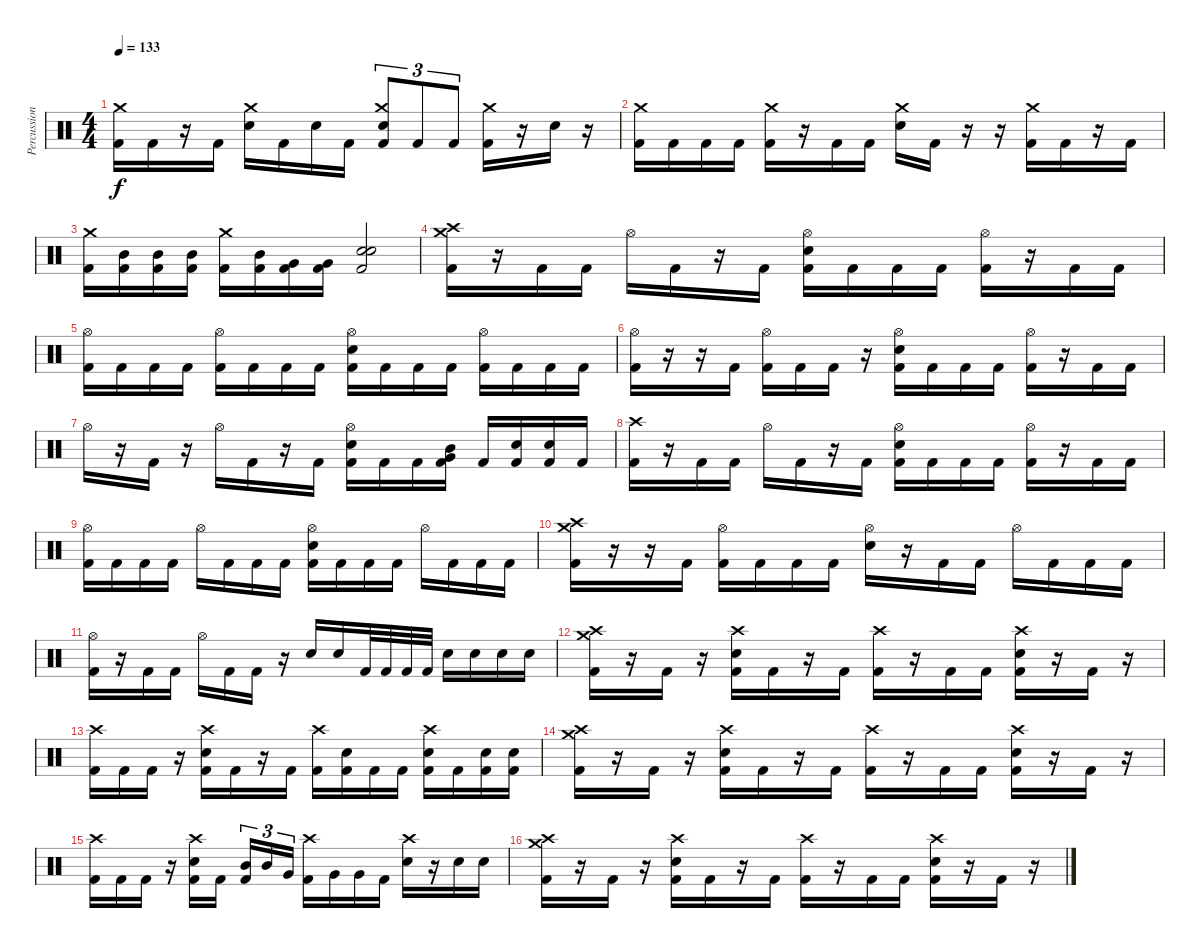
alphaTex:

\track ("Percussion" "Percussion") {instrument percussion}
\staff {score}
\articulation defaults
\ts (4 4)
\tempo 133
\clef neutral
\ks c
("Kick (hit) 2" "Crash medium (hit)").16{dy f} "Kick (hit) 2".16 r.16 "Kick (hit) 2".16 ("Electric Snare (hit)" "Crash medium (hit)").16 "Kick (hit) 2".16 "Electric Snare (hit)".16 "Kick (hit) 2".16 ("Kick (hit) 2" "Electric Snare (hit)" "Crash medium (hit)").8{tu (3 2)} "Kick (hit) 2".8{tu (3 2)} "Kick (hit) 2".8{tu (3 2)} ("Kick (hit) 2" "Crash medium (hit)").16 r.16 "Electric Snare (hit)".16 r.16 |
("Kick (hit) 2" "Crash medium (hit)").16 "Kick (hit) 2".16 "Kick (hit) 2".16 "Kick (hit) 2".16 ("Kick (hit) 2" "Crash medium (hit)").16 r.16 "Kick (hit) 2".16 "Kick (hit) 2".16 ("Electric Snare (hit)" "Crash medium (hit)").16 "Kick (hit) 2".16 r.16 r.16 ("Kick (hit) 2" "Crash medium (hit)").16 "Kick (hit) 2".16 r.16 "Kick (hit) 2".16 |
("Kick (hit) 2" "Crash medium (hit)").16 ("Kick (hit) 2" "Mid Tom (hit)").16 ("Kick (hit) 2" "Mid Tom (hit)").16 ("Kick (hit) 2" "Mid Tom (hit)").16 ("Kick (hit) 2" "Crash medium (hit)").16 ("Kick (hit) 2" "Mid Tom (hit)").16 ("Kick (hit) 2" "Very Low Tom (hit)").16 ("Kick (hit) 2" "Very Low Tom (hit)").16 ("Kick (hit) 2" "Electric Snare (hit)" "Electric Snare (hit)").2 |
("Kick (hit) 2" "Crash medium (hit)" "Crash high (hit)").16 r.16 "Kick (hit) 2".16 "Kick (hit) 2".16 "Hi-Hat (open)".16 "Kick (hit) 2".16 r.16 "Kick (hit) 2".16 ("Kick (hit) 2" "Electric Snare (hit)" "Hi-Hat (open)").16 "Kick (hit) 2".16 "Kick (hit) 2".16 "Kick (hit) 2".16 ("Kick (hit) 2" "Hi-Hat (open)").16 r.16 "Kick (hit) 2".16 "Kick (hit) 2".16 |
("Kick (hit) 2" "Hi-Hat (open)").16 "Kick (hit) 2".16 "Kick (hit) 2".16 "Kick (hit) 2".16 ("Kick (hit) 2" "Hi-Hat (open)").16 "Kick (hit) 2".16 "Kick (hit) 2".16 "Kick (hit) 2".16 ("Kick (hit) 2" "Electric Snare (hit)" "Hi-Hat (open)").16 "Kick (hit) 2".16 "Kick (hit) 2".16 "Kick (hit) 2".16 ("Kick (hit) 2" "Hi-Hat (open)").16 "Kick (hit) 2".16 "Kick (hit) 2".16 "Kick (hit) 2".16 |
("Kick (hit) 2" "Hi-Hat (open)").16 r.16 r.16 "Kick (hit) 2".16 ("Kick (hit) 2" "Hi-Hat (open)").16 "Kick (hit) 2".16 "Kick (hit) 2".16 r.16 ("Kick (hit) 2" "Electric Snare (hit)" "Hi-Hat (open)").16 "Kick (hit) 2".16 "Kick (hit) 2".16 "Kick (hit) 2".16 ("Kick (hit) 2" "Hi-Hat (open)").16 r.16 "Kick (hit) 2".16 "Kick (hit) 2".16 |
"Hi-Hat (open)".16 r.16 "Kick (hit) 2".16 r.16 "Hi-Hat (open)".16 "Kick (hit) 2".16 r.16 "Kick (hit) 2".16 ("Kick (hit) 2" "Electric Snare (hit)" "Hi-Hat (open)").16 "Kick (hit) 2".16 "Kick (hit) 2".16 ("Kick (hit) 2" "Very Low Tom (hit)" "Mid Tom (hit)").16 "Kick (hit) 2".16 ("Kick (hit) 2" "Electric Snare (hit)").16 ("Kick (hit) 2" "Electric Snare (hit)").16 "Kick (hit) 2".16 |
("Kick (hit) 2" "Crash high (hit)").16 r.16 "Kick (hit) 2".16 "Kick (hit) 2".16 "Hi-Hat (open)".16 "Kick (hit) 2".16 r.16 "Kick (hit) 2".16 ("Kick (hit) 2" "Electric Snare (hit)" "Hi-Hat (open)").16 "Kick (hit) 2".16 "Kick (hit) 2".16 "Kick (hit) 2".16 ("Kick (hit) 2" "Hi-Hat (open)").16 r.16 "Kick (hit) 2".16 "Kick (hit) 2".16 |
("Kick (hit) 2" "Hi-Hat (open)").16 "Kick (hit) 2".16 "Kick (hit) 2".16 "Kick (hit) 2".16 "Hi-Hat (open)".16 "Kick (hit) 2".16 "Kick (hit) 2".16 "Kick (hit) 2".16 ("Kick (hit) 2" "Electric Snare (hit)" "Hi-Hat (open)").16 "Kick (hit) 2".16 "Kick (hit) 2".16 "Kick (hit) 2".16 "Hi-Hat (open)".16 "Kick (hit) 2".16 "Kick (hit) 2".16 "Kick (hit) 2".16 |
("Kick (hit) 2" "Crash medium (hit)" "Crash high (hit)").16 r.16 r.16 "Kick (hit) 2".16 ("Kick (hit) 2" "Hi-Hat (open)").16 "Kick (hit) 2".16 "Kick (hit) 2".16 "Kick (hit) 2".16 ("Electric Snare (hit)" "Hi-Hat (open)").16 r.16 "Kick (hit) 2".16 "Kick (hit) 2".16 "Hi-Hat (open)".16 "Kick (hit) 2".16 "Kick (hit) 2".16 "Kick (hit) 2".16 |
("Kick (hit) 2" "Hi-Hat (open)").16 r.16 "Kick (hit) 2".16 "Kick (hit) 2".16 "Hi-Hat (open)".16 "Kick (hit) 2".16 "Kick (hit) 2".16 r.16 "Electric Snare (hit)".16 "Electric Snare (hit)".16 "Kick (hit) 2".32 "Kick (hit) 2".32 "Kick (hit) 2".32 "Kick (hit) 2".32 "Electric Snare (hit)".16 "Electric Snare (hit)".16 "Electric Snare (hit)".16 "Electric Snare (hit)".16 |
("Kick (hit) 2" "Crash medium (hit)" "Crash high (hit)").16 r.16 "Kick (hit) 2".16 r.16 ("Kick (hit) 2" "Electric Snare (hit)" "Crash high (hit)").16 "Kick (hit) 2".16 r.16 "Kick (hit) 2".16 ("Kick (hit) 2" "Crash high (hit)").16 r.16 "Kick (hit) 2".16 "Kick (hit) 2".16 ("Kick (hit) 2" "Electric Snare (hit)" "Crash high (hit)").16 r.16 "Kick (hit) 2".16 r.16 |
("Kick (hit) 2" "Crash high (hit)").16 "Kick (hit) 2".16 "Kick (hit) 2".16 r.16 ("Kick (hit) 2" "Electric Snare (hit)" "Crash high (hit)").16 "Kick (hit) 2".16 r.16 "Kick (hit) 2".16 ("Kick (hit) 2" "Crash high (hit)").16 ("Kick (hit) 2" "Electric Snare (hit)").16 "Kick (hit) 2".16 "Kick (hit) 2".16 ("Kick (hit) 2" "Electric Snare (hit)" "Crash high (hit)").16 "Kick (hit) 2".16 ("Kick (hit) 2" "Electric Snare (hit)").16 ("Kick (hit) 2" "Electric Snare (hit)").16 |
("Kick (hit) 2" "Crash medium (hit)" "Crash high (hit)").16 r.16 "Kick (hit) 2".16 r.16 ("Kick (hit) 2" "Electric Snare (hit)" "Crash high (hit)").16 "Kick (hit) 2".16 r.16 "Kick (hit) 2".16 ("Kick (hit) 2" "Crash high (hit)").16 r.16 "Kick (hit) 2".16 "Kick (hit) 2".16 ("Kick (hit) 2" "Electric Snare (hit)" "Crash high (hit)").16 r.16 "Kick (hit) 2".16 r.16 |
("Kick (hit) 2" "Crash high (hit)").16 "Kick (hit) 2".16 "Kick (hit) 2".16 r.16 ("Kick (hit) 2" "Electric Snare (hit)" "Crash high (hit)").16 "Kick (hit) 2".16{beam splitsecondary} ("Kick (hit) 2" "Mid Tom (hit)").16{tu (3 2)} "Mid Tom (hit)".16{tu (3 2)} "Very Low Tom (hit)".16{tu (3 2)} ("Kick (hit) 2" "Crash high (hit)").16 "Very Low Tom (hit)".16 "Very Low Tom (hit)".16 "Kick (hit) 2".16 ("Electric Snare (hit)" "Crash high (hit)").16 r.16 "Electric Snare (hit)".16 "Electric Snare (hit)".16 |
("Kick (hit) 2" "Crash medium (hit)" "Crash high (hit)").16 r.16 "Kick (hit) 2".16 r.16 ("Kick (hit) 2" "Electric Snare (hit)" "Crash high (hit)").16 "Kick (hit) 2".16 r.16 "Kick (hit) 2".16 ("Kick (hit) 2" "Crash high (hit)").16 r.16 "Kick (hit) 2".16 "Kick (hit) 2".16 ("Kick (hit) 2" "Electric Snare (hit)" "Crash high (hit)").16 r.16 "Kick (hit) 2".16 r.16
